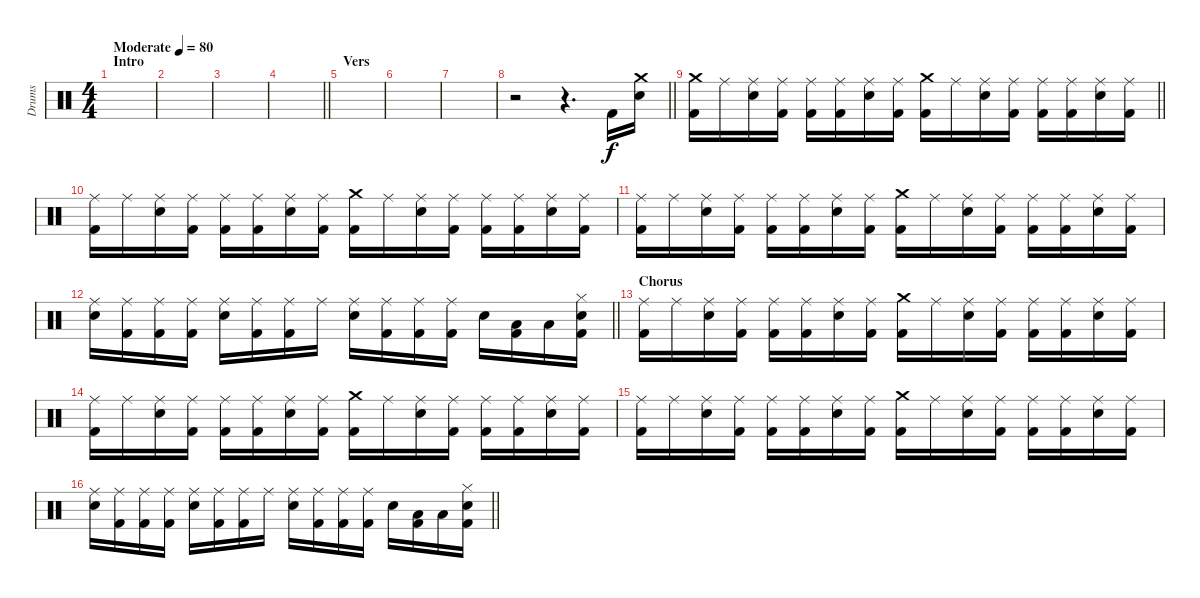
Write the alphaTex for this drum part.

\track ("Drums" "Drums") {instrument percussion}
\staff {score}
\articulation defaults
\ts (4 4)
\section ("" "Intro")
\tempo (80 "Moderate")
\clef neutral
\ks c
|
|
|
\barLineRight lightlight
|
\section ("" "Vers")
|
|
|
\barLineRight lightlight
r.2 r.4{d} "Kick (hit) 2".16 ("Crash medium (hit)" "Snare (hit) 2").16 |
\barLineRight lightlight
("Crash medium (hit)" "Kick (hit) 2").16 "Ride (middle)".16 ("Ride (middle)" "Snare (hit) 2").16 ("Ride (middle)" "Kick (hit) 2").16 ("Ride (middle)" "Kick (hit) 2").16 ("Ride (middle)" "Kick (hit) 2").16 ("Ride (middle)" "Snare (hit) 2").16 ("Ride (middle)" "Kick (hit) 2").16 ("Crash medium (hit)" "Kick (hit) 2").16 "Ride (middle)".16 ("Ride (middle)" "Snare (hit) 2").16 ("Ride (middle)" "Kick (hit) 2").16 ("Ride (middle)" "Kick (hit) 2").16 ("Ride (middle)" "Kick (hit) 2").16 ("Ride (middle)" "Snare (hit) 2").16 ("Ride (middle)" "Kick (hit) 2").16 |
("Ride (middle)" "Kick (hit) 2").16 "Ride (middle)".16 ("Ride (middle)" "Snare (hit) 2").16 ("Ride (middle)" "Kick (hit) 2").16 ("Ride (middle)" "Kick (hit) 2").16 ("Ride (middle)" "Kick (hit) 2").16 ("Ride (middle)" "Snare (hit) 2").16 ("Ride (middle)" "Kick (hit) 2").16 ("Crash medium (hit)" "Kick (hit) 2").16 "Ride (middle)".16 ("Ride (middle)" "Snare (hit) 2").16 ("Ride (middle)" "Kick (hit) 2").16 ("Ride (middle)" "Kick (hit) 2").16 ("Ride (middle)" "Kick (hit) 2").16 ("Ride (middle)" "Snare (hit) 2").16 ("Ride (middle)" "Kick (hit) 2").16 |
("Ride (middle)" "Kick (hit) 2").16 "Ride (middle)".16 ("Ride (middle)" "Snare (hit) 2").16 ("Ride (middle)" "Kick (hit) 2").16 ("Ride (middle)" "Kick (hit) 2").16 ("Ride (middle)" "Kick (hit) 2").16 ("Ride (middle)" "Snare (hit) 2").16 ("Ride (middle)" "Kick (hit) 2").16 ("Crash medium (hit)" "Kick (hit) 2").16 "Ride (middle)".16 ("Ride (middle)" "Snare (hit) 2").16 ("Ride (middle)" "Kick (hit) 2").16 ("Ride (middle)" "Kick (hit) 2").16 ("Ride (middle)" "Kick (hit) 2").16 ("Ride (middle)" "Snare (hit) 2").16 ("Ride (middle)" "Kick (hit) 2").16 |
\barLineRight lightlight
("Ride (middle)" "Snare (hit) 2").16 ("Ride (middle)" "Kick (hit) 2").16 ("Ride (middle)" "Kick (hit) 2").16 ("Ride (middle)" "Kick (hit) 2").16 ("Ride (middle)" "Snare (hit) 2").16 ("Ride (middle)" "Kick (hit) 2").16 ("Ride (middle)" "Kick (hit) 2").16 "Ride (middle)".16 ("Ride (middle)" "Snare (hit) 2").16 ("Ride (middle)" "Kick (hit) 2").16 ("Ride (middle)" "Kick (hit) 2").16 ("Ride (middle)" "Kick (hit) 2").16 "Snare (hit) 2".16 ("Low Tom (hit)" "Kick (hit) 2").16 "Low Tom (hit)".16 ("Hi-Hat (closed)" "Snare (hit) 2" "Kick (hit) 2").16 |
\section ("" "Chorus")
("Ride (middle)" "Kick (hit) 2").16 "Ride (middle)".16 ("Ride (middle)" "Snare (hit) 2").16 ("Ride (middle)" "Kick (hit) 2").16 ("Ride (middle)" "Kick (hit) 2").16 ("Ride (middle)" "Kick (hit) 2").16 ("Ride (middle)" "Snare (hit) 2").16 ("Ride (middle)" "Kick (hit) 2").16 ("Crash medium (hit)" "Kick (hit) 2").16 "Ride (middle)".16 ("Ride (middle)" "Snare (hit) 2").16 ("Ride (middle)" "Kick (hit) 2").16 ("Ride (middle)" "Kick (hit) 2").16 ("Ride (middle)" "Kick (hit) 2").16 ("Ride (middle)" "Snare (hit) 2").16 ("Ride (middle)" "Kick (hit) 2").16 |
("Ride (middle)" "Kick (hit) 2").16 "Ride (middle)".16 ("Ride (middle)" "Snare (hit) 2").16 ("Ride (middle)" "Kick (hit) 2").16 ("Ride (middle)" "Kick (hit) 2").16 ("Ride (middle)" "Kick (hit) 2").16 ("Ride (middle)" "Snare (hit) 2").16 ("Ride (middle)" "Kick (hit) 2").16 ("Crash medium (hit)" "Kick (hit) 2").16 "Ride (middle)".16 ("Ride (middle)" "Snare (hit) 2").16 ("Ride (middle)" "Kick (hit) 2").16 ("Ride (middle)" "Kick (hit) 2").16 ("Ride (middle)" "Kick (hit) 2").16 ("Ride (middle)" "Snare (hit) 2").16 ("Ride (middle)" "Kick (hit) 2").16 |
("Ride (middle)" "Kick (hit) 2").16 "Ride (middle)".16 ("Ride (middle)" "Snare (hit) 2").16 ("Ride (middle)" "Kick (hit) 2").16 ("Ride (middle)" "Kick (hit) 2").16 ("Ride (middle)" "Kick (hit) 2").16 ("Ride (middle)" "Snare (hit) 2").16 ("Ride (middle)" "Kick (hit) 2").16 ("Crash medium (hit)" "Kick (hit) 2").16 "Ride (middle)".16 ("Ride (middle)" "Snare (hit) 2").16 ("Ride (middle)" "Kick (hit) 2").16 ("Ride (middle)" "Kick (hit) 2").16 ("Ride (middle)" "Kick (hit) 2").16 ("Ride (middle)" "Snare (hit) 2").16 ("Ride (middle)" "Kick (hit) 2").16 |
\barLineRight lightlight
("Ride (middle)" "Snare (hit) 2").16 ("Ride (middle)" "Kick (hit) 2").16 ("Ride (middle)" "Kick (hit) 2").16 ("Ride (middle)" "Kick (hit) 2").16 ("Ride (middle)" "Snare (hit) 2").16 ("Ride (middle)" "Kick (hit) 2").16 ("Ride (middle)" "Kick (hit) 2").16 "Ride (middle)".16 ("Ride (middle)" "Snare (hit) 2").16 ("Ride (middle)" "Kick (hit) 2").16 ("Ride (middle)" "Kick (hit) 2").16 ("Ride (middle)" "Kick (hit) 2").16 "Snare (hit) 2".16 ("Low Tom (hit)" "Kick (hit) 2").16 "Low Tom (hit)".16 ("Hi-Hat (closed)" "Snare (hit) 2" "Kick (hit) 2").16
